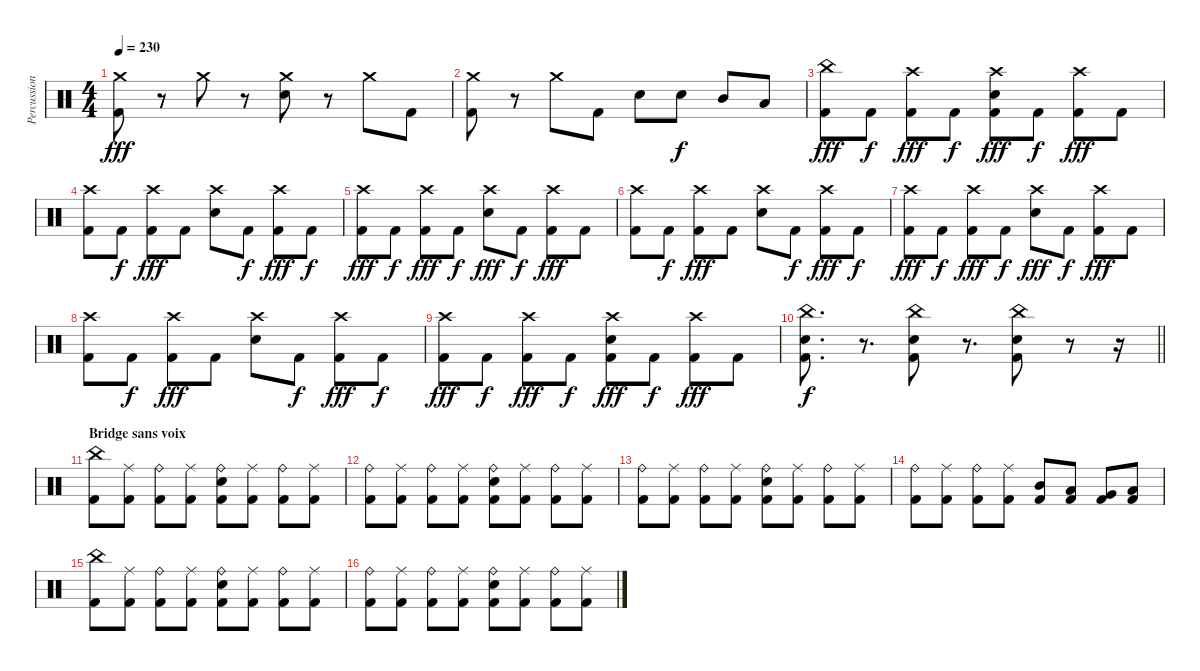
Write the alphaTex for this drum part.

\track ("Percussions" "Percussion") {instrument percussion}
\staff {score}
\articulation defaults
\ts (4 4)
\tempo 230
\clef neutral
\ks c
("Crash medium (hit)" "Kick (hit) 2").8{dy fff} r.8 "Crash medium (hit)".8 r.8 ("Crash medium (hit)" "Electric Snare (hit)").8 r.8 "Crash medium (hit)".8 "Kick (hit) 2".8 |
("Crash medium (hit)" "Kick (hit) 2").8 r.8 "Crash medium (hit)".8 "Kick (hit) 2".8 "Electric Snare (hit)".8 "Electric Snare (hit)".8{dy f} "Mid Tom (hit)".8 "Low Tom (hit)".8 |
("China (hit)" "Kick (hit) 2").8{dy fff} "Kick (hit) 2".8{dy f} ("Crash high (hit)" "Kick (hit) 2").8{dy fff} "Kick (hit) 2".8{dy f} ("Crash high (hit)" "Electric Snare (hit)" "Kick (hit) 2").8{dy fff} "Kick (hit) 2".8{dy f} ("Crash high (hit)" "Kick (hit) 2").8{dy fff} "Kick (hit) 2".8 |
("Crash high (hit)" "Kick (hit) 2").8 "Kick (hit) 2".8{dy f} ("Crash high (hit)" "Kick (hit) 2").8{dy fff} "Kick (hit) 2".8 ("Crash high (hit)" "Electric Snare (hit)").8 "Kick (hit) 2".8{dy f} ("Crash high (hit)" "Kick (hit) 2").8{dy fff} "Kick (hit) 2".8{dy f} |
("Crash high (hit)" "Kick (hit) 2").8{dy fff} "Kick (hit) 2".8{dy f} ("Crash high (hit)" "Kick (hit) 2").8{dy fff} "Kick (hit) 2".8{dy f} ("Crash high (hit)" "Electric Snare (hit)").8{dy fff} "Kick (hit) 2".8{dy f} ("Crash high (hit)" "Kick (hit) 2").8{dy fff} "Kick (hit) 2".8 |
("Crash high (hit)" "Kick (hit) 2").8 "Kick (hit) 2".8{dy f} ("Crash high (hit)" "Kick (hit) 2").8{dy fff} "Kick (hit) 2".8 ("Crash high (hit)" "Electric Snare (hit)").8 "Kick (hit) 2".8{dy f} ("Crash high (hit)" "Kick (hit) 2").8{dy fff} "Kick (hit) 2".8{dy f} |
("Crash high (hit)" "Kick (hit) 2").8{dy fff} "Kick (hit) 2".8{dy f} ("Crash high (hit)" "Kick (hit) 2").8{dy fff} "Kick (hit) 2".8{dy f} ("Crash high (hit)" "Electric Snare (hit)").8{dy fff} "Kick (hit) 2".8{dy f} ("Crash high (hit)" "Kick (hit) 2").8{dy fff} "Kick (hit) 2".8 |
("Crash high (hit)" "Kick (hit) 2").8 "Kick (hit) 2".8{dy f} ("Crash high (hit)" "Kick (hit) 2").8{dy fff} "Kick (hit) 2".8 ("Crash high (hit)" "Electric Snare (hit)").8 "Kick (hit) 2".8{dy f} ("Crash high (hit)" "Kick (hit) 2").8{dy fff} "Kick (hit) 2".8{dy f} |
("Crash high (hit)" "Kick (hit) 2").8{dy fff} "Kick (hit) 2".8{dy f} ("Crash high (hit)" "Kick (hit) 2").8{dy fff} "Kick (hit) 2".8{dy f} ("Crash high (hit)" "Electric Snare (hit)" "Kick (hit) 2").8{dy fff} "Kick (hit) 2".8{dy f} ("Crash high (hit)" "Kick (hit) 2").8{dy fff} "Kick (hit) 2".8 |
\barLineRight lightlight
("China (hit)" "Electric Snare (hit)" "Kick (hit) 2").8{d dy f} r.8{d} ("China (hit)" "Electric Snare (hit)" "Kick (hit) 2").8 r.8{d} ("China (hit)" "Electric Snare (hit)" "Kick (hit) 2").8 r.8 r.16 |
\section ("" "Bridge sans voix")
("China (hit)" "Kick (hit) 2").8 ("Ride (middle)" "Kick (hit) 2").8 ("Ride (bell)" "Kick (hit) 2").8 ("Ride (middle)" "Kick (hit) 2").8 ("Ride (bell)" "Electric Snare (hit)" "Kick (hit) 2").8 ("Ride (middle)" "Kick (hit) 2").8 ("Ride (bell)" "Kick (hit) 2").8 ("Ride (middle)" "Kick (hit) 2").8 |
("Ride (bell)" "Kick (hit) 2").8 ("Ride (middle)" "Kick (hit) 2").8 ("Ride (bell)" "Kick (hit) 2").8 ("Ride (middle)" "Kick (hit) 2").8 ("Ride (bell)" "Electric Snare (hit)" "Kick (hit) 2").8 ("Ride (middle)" "Kick (hit) 2").8 ("Ride (bell)" "Kick (hit) 2").8 ("Ride (middle)" "Kick (hit) 2").8 |
("Ride (bell)" "Kick (hit) 2").8 ("Ride (middle)" "Kick (hit) 2").8 ("Ride (bell)" "Kick (hit) 2").8 ("Ride (middle)" "Kick (hit) 2").8 ("Ride (bell)" "Electric Snare (hit)" "Kick (hit) 2").8 ("Ride (middle)" "Kick (hit) 2").8 ("Ride (bell)" "Kick (hit) 2").8 ("Ride (middle)" "Kick (hit) 2").8 |
("Ride (bell)" "Kick (hit) 2").8 ("Ride (middle)" "Kick (hit) 2").8 ("Ride (bell)" "Kick (hit) 2").8 ("Ride (middle)" "Kick (hit) 2").8 ("Mid Tom (hit)" "Kick (hit) 2").8 ("Low Tom (hit)" "Kick (hit) 2").8 ("Very Low Tom (hit)" "Kick (hit) 2").8 ("Low Floor Tom (hit)" "Kick (hit) 2").8 |
("China (hit)" "Kick (hit) 2").8 ("Ride (middle)" "Kick (hit) 2").8 ("Ride (bell)" "Kick (hit) 2").8 ("Ride (middle)" "Kick (hit) 2").8 ("Ride (bell)" "Electric Snare (hit)" "Kick (hit) 2").8 ("Ride (middle)" "Kick (hit) 2").8 ("Ride (bell)" "Kick (hit) 2").8 ("Ride (middle)" "Kick (hit) 2").8 |
("Ride (bell)" "Kick (hit) 2").8 ("Ride (middle)" "Kick (hit) 2").8 ("Ride (bell)" "Kick (hit) 2").8 ("Ride (middle)" "Kick (hit) 2").8 ("Ride (bell)" "Electric Snare (hit)" "Kick (hit) 2").8 ("Ride (middle)" "Kick (hit) 2").8 ("Ride (bell)" "Kick (hit) 2").8 ("Ride (middle)" "Kick (hit) 2").8
